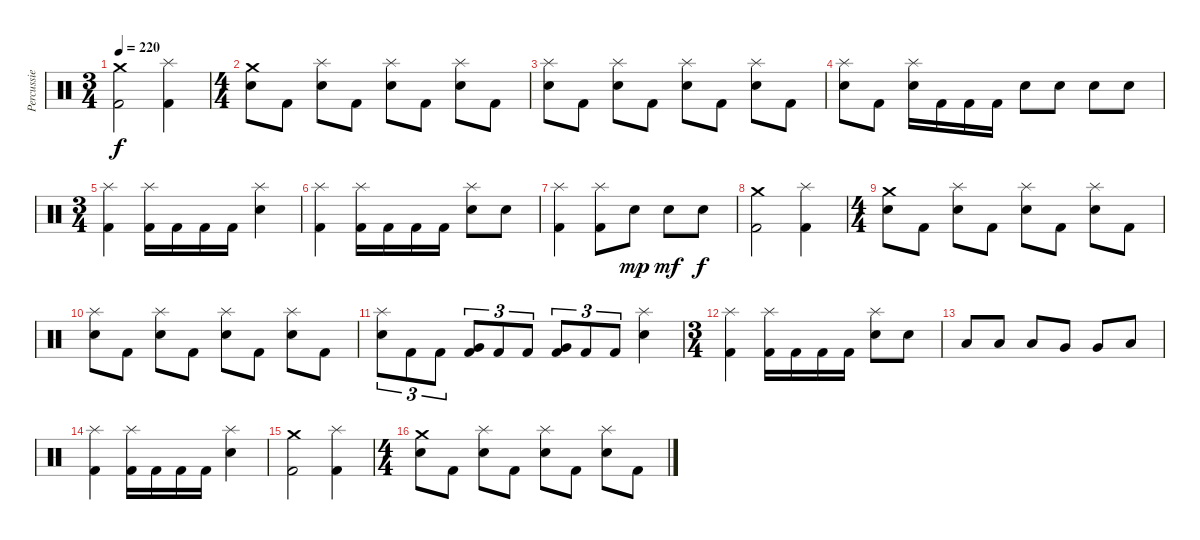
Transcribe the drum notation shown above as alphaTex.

\track ("Percussie" "Percussie") {instrument percussion}
\staff {score}
\articulation defaults
\ts (3 4)
\tempo 220
\clef neutral
\ks c
("Crash medium (hit)" "Kick (hit) 2").2{dy f} ("Splash (hit)" "Kick (hit) 2").4 |
\ts (4 4)
("Crash medium (hit)" "Electric Snare (hit)").8 "Kick (hit) 2".8 ("Splash (hit)" "Electric Snare (hit)").8 "Kick (hit) 2".8 ("Splash (hit)" "Electric Snare (hit)").8 "Kick (hit) 2".8 ("Splash (hit)" "Electric Snare (hit)").8 "Kick (hit) 2".8 |
("Splash (hit)" "Electric Snare (hit)").8 "Kick (hit) 2".8 ("Splash (hit)" "Electric Snare (hit)").8 "Kick (hit) 2".8 ("Splash (hit)" "Electric Snare (hit)").8 "Kick (hit) 2".8 ("Splash (hit)" "Electric Snare (hit)").8 "Kick (hit) 2".8 |
("Splash (hit)" "Electric Snare (hit)").8 "Kick (hit) 2".8 ("Splash (hit)" "Electric Snare (hit)").16 "Kick (hit) 2".16 "Kick (hit) 2".16 "Kick (hit) 2".16 "Electric Snare (hit)".8 "Electric Snare (hit)".8 "Electric Snare (hit)".8 "Electric Snare (hit)".8 |
\ts (3 4)
("Splash (hit)" "Kick (hit) 2").4 ("Splash (hit)" "Kick (hit) 2").16 "Kick (hit) 2".16 "Kick (hit) 2".16 "Kick (hit) 2".16 ("Splash (hit)" "Electric Snare (hit)").4 |
("Splash (hit)" "Kick (hit) 2").4 ("Splash (hit)" "Kick (hit) 2").16 "Kick (hit) 2".16 "Kick (hit) 2".16 "Kick (hit) 2".16 ("Splash (hit)" "Electric Snare (hit)").8 "Electric Snare (hit)".8 |
("Splash (hit)" "Kick (hit) 2").4 ("Splash (hit)" "Kick (hit) 2").8 "Electric Snare (hit)".8{dy mp} "Electric Snare (hit)".8{dy mf} "Electric Snare (hit)".8{dy f} |
("Crash medium (hit)" "Kick (hit) 2").2 ("Splash (hit)" "Kick (hit) 2").4 |
\ts (4 4)
("Crash medium (hit)" "Electric Snare (hit)").8 "Kick (hit) 2".8 ("Splash (hit)" "Electric Snare (hit)").8 "Kick (hit) 2".8 ("Splash (hit)" "Electric Snare (hit)").8 "Kick (hit) 2".8 ("Splash (hit)" "Electric Snare (hit)").8 "Kick (hit) 2".8 |
("Splash (hit)" "Electric Snare (hit)").8 "Kick (hit) 2".8 ("Splash (hit)" "Electric Snare (hit)").8 "Kick (hit) 2".8 ("Splash (hit)" "Electric Snare (hit)").8 "Kick (hit) 2".8 ("Splash (hit)" "Electric Snare (hit)").8 "Kick (hit) 2".8 |
("Splash (hit)" "Electric Snare (hit)").8{tu (3 2)} "Kick (hit) 2".8{tu (3 2)} "Kick (hit) 2".8{tu (3 2)} ("Very Low Tom (hit)" "Kick (hit) 2").8{tu (3 2)} "Kick (hit) 2".8{tu (3 2)} "Kick (hit) 2".8{tu (3 2)} ("Very Low Tom (hit)" "Kick (hit) 2").8{tu (3 2)} "Kick (hit) 2".8{tu (3 2)} "Kick (hit) 2".8{tu (3 2)} ("Splash (hit)" "Electric Snare (hit)").4 |
\ts (3 4)
("Splash (hit)" "Kick (hit) 2").4 ("Splash (hit)" "Kick (hit) 2").16 "Kick (hit) 2".16 "Kick (hit) 2".16 "Kick (hit) 2".16 ("Splash (hit)" "Electric Snare (hit)").8 "Electric Snare (hit)".8 |
"Low Tom (hit)".8 "Low Tom (hit)".8 "Low Tom (hit)".8 "Very Low Tom (hit)".8 "Very Low Tom (hit)".8 "Low Floor Tom (hit)".8 |
("Splash (hit)" "Kick (hit) 2").4 ("Splash (hit)" "Kick (hit) 2").16 "Kick (hit) 2".16 "Kick (hit) 2".16 "Kick (hit) 2".16 ("Splash (hit)" "Electric Snare (hit)").4 |
("Crash medium (hit)" "Kick (hit) 2").2 ("Splash (hit)" "Kick (hit) 2").4 |
\ts (4 4)
("Crash medium (hit)" "Electric Snare (hit)").8 "Kick (hit) 2".8 ("Splash (hit)" "Electric Snare (hit)").8 "Kick (hit) 2".8 ("Splash (hit)" "Electric Snare (hit)").8 "Kick (hit) 2".8 ("Splash (hit)" "Electric Snare (hit)").8 "Kick (hit) 2".8
